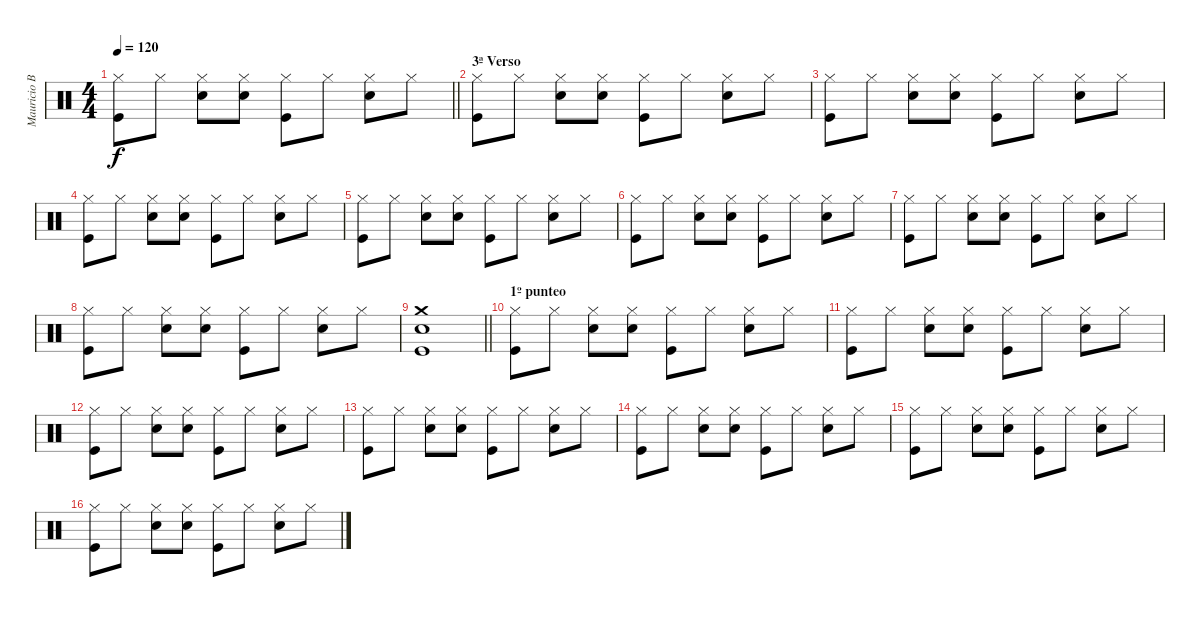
\track ("Mauricio Basualto" "Mauricio B") {instrument percussion}
\staff {score}
\articulation defaults
\ts (4 4)
\tempo 120
\clef neutral
\barLineRight lightlight
\ks c
("Hi-Hat (closed)" "Kick (hit)").8{dy f} "Hi-Hat (closed)".8 ("Hi-Hat (closed)" "Electric Snare (hit)").8 ("Hi-Hat (closed)" "Electric Snare (hit)").8 ("Hi-Hat (closed)" "Kick (hit)").8 "Hi-Hat (closed)".8 ("Hi-Hat (closed)" "Electric Snare (hit)").8 "Hi-Hat (closed)".8 |
\section ("" "3ª Verso")
("Hi-Hat (closed)" "Kick (hit)").8 "Hi-Hat (closed)".8 ("Hi-Hat (closed)" "Electric Snare (hit)").8 ("Hi-Hat (closed)" "Electric Snare (hit)").8 ("Hi-Hat (closed)" "Kick (hit)").8 "Hi-Hat (closed)".8 ("Hi-Hat (closed)" "Electric Snare (hit)").8 "Hi-Hat (closed)".8 |
("Hi-Hat (closed)" "Kick (hit)").8 "Hi-Hat (closed)".8 ("Hi-Hat (closed)" "Electric Snare (hit)").8 ("Hi-Hat (closed)" "Electric Snare (hit)").8 ("Hi-Hat (closed)" "Kick (hit)").8 "Hi-Hat (closed)".8 ("Hi-Hat (closed)" "Electric Snare (hit)").8 "Hi-Hat (closed)".8 |
("Hi-Hat (closed)" "Kick (hit)").8 "Hi-Hat (closed)".8 ("Hi-Hat (closed)" "Electric Snare (hit)").8 ("Hi-Hat (closed)" "Electric Snare (hit)").8 ("Hi-Hat (closed)" "Kick (hit)").8 "Hi-Hat (closed)".8 ("Hi-Hat (closed)" "Electric Snare (hit)").8 "Hi-Hat (closed)".8 |
("Hi-Hat (closed)" "Kick (hit)").8 "Hi-Hat (closed)".8 ("Hi-Hat (closed)" "Electric Snare (hit)").8 ("Hi-Hat (closed)" "Electric Snare (hit)").8 ("Hi-Hat (closed)" "Kick (hit)").8 "Hi-Hat (closed)".8 ("Hi-Hat (closed)" "Electric Snare (hit)").8 "Hi-Hat (closed)".8 |
("Hi-Hat (closed)" "Kick (hit)").8 "Hi-Hat (closed)".8 ("Hi-Hat (closed)" "Electric Snare (hit)").8 ("Hi-Hat (closed)" "Electric Snare (hit)").8 ("Hi-Hat (closed)" "Kick (hit)").8 "Hi-Hat (closed)".8 ("Hi-Hat (closed)" "Electric Snare (hit)").8 "Hi-Hat (closed)".8 |
("Hi-Hat (closed)" "Kick (hit)").8 "Hi-Hat (closed)".8 ("Hi-Hat (closed)" "Electric Snare (hit)").8 ("Hi-Hat (closed)" "Electric Snare (hit)").8 ("Hi-Hat (closed)" "Kick (hit)").8 "Hi-Hat (closed)".8 ("Hi-Hat (closed)" "Electric Snare (hit)").8 "Hi-Hat (closed)".8 |
("Hi-Hat (closed)" "Kick (hit)").8 "Hi-Hat (closed)".8 ("Hi-Hat (closed)" "Electric Snare (hit)").8 ("Hi-Hat (closed)" "Electric Snare (hit)").8 ("Hi-Hat (closed)" "Kick (hit)").8 "Hi-Hat (closed)".8 ("Hi-Hat (closed)" "Electric Snare (hit)").8 "Hi-Hat (closed)".8 |
\barLineRight lightlight
("Crash medium (hit)" "Kick (hit)" "Electric Snare (hit)").1 |
\section ("" "1º punteo")
("Hi-Hat (closed)" "Kick (hit)").8 "Hi-Hat (closed)".8 ("Hi-Hat (closed)" "Electric Snare (hit)").8 ("Hi-Hat (closed)" "Electric Snare (hit)").8 ("Hi-Hat (closed)" "Kick (hit)").8 "Hi-Hat (closed)".8 ("Hi-Hat (closed)" "Electric Snare (hit)").8 "Hi-Hat (closed)".8 |
("Hi-Hat (closed)" "Kick (hit)").8 "Hi-Hat (closed)".8 ("Hi-Hat (closed)" "Electric Snare (hit)").8 ("Hi-Hat (closed)" "Electric Snare (hit)").8 ("Hi-Hat (closed)" "Kick (hit)").8 "Hi-Hat (closed)".8 ("Hi-Hat (closed)" "Electric Snare (hit)").8 "Hi-Hat (closed)".8 |
("Hi-Hat (closed)" "Kick (hit)").8 "Hi-Hat (closed)".8 ("Hi-Hat (closed)" "Electric Snare (hit)").8 ("Hi-Hat (closed)" "Electric Snare (hit)").8 ("Hi-Hat (closed)" "Kick (hit)").8 "Hi-Hat (closed)".8 ("Hi-Hat (closed)" "Electric Snare (hit)").8 "Hi-Hat (closed)".8 |
("Hi-Hat (closed)" "Kick (hit)").8 "Hi-Hat (closed)".8 ("Hi-Hat (closed)" "Electric Snare (hit)").8 ("Hi-Hat (closed)" "Electric Snare (hit)").8 ("Hi-Hat (closed)" "Kick (hit)").8 "Hi-Hat (closed)".8 ("Hi-Hat (closed)" "Electric Snare (hit)").8 "Hi-Hat (closed)".8 |
("Hi-Hat (closed)" "Kick (hit)").8 "Hi-Hat (closed)".8 ("Hi-Hat (closed)" "Electric Snare (hit)").8 ("Hi-Hat (closed)" "Electric Snare (hit)").8 ("Hi-Hat (closed)" "Kick (hit)").8 "Hi-Hat (closed)".8 ("Hi-Hat (closed)" "Electric Snare (hit)").8 "Hi-Hat (closed)".8 |
("Hi-Hat (closed)" "Kick (hit)").8 "Hi-Hat (closed)".8 ("Hi-Hat (closed)" "Electric Snare (hit)").8 ("Hi-Hat (closed)" "Electric Snare (hit)").8 ("Hi-Hat (closed)" "Kick (hit)").8 "Hi-Hat (closed)".8 ("Hi-Hat (closed)" "Electric Snare (hit)").8 "Hi-Hat (closed)".8 |
("Hi-Hat (closed)" "Kick (hit)").8 "Hi-Hat (closed)".8 ("Hi-Hat (closed)" "Electric Snare (hit)").8 ("Hi-Hat (closed)" "Electric Snare (hit)").8 ("Hi-Hat (closed)" "Kick (hit)").8 "Hi-Hat (closed)".8 ("Hi-Hat (closed)" "Electric Snare (hit)").8 "Hi-Hat (closed)".8
